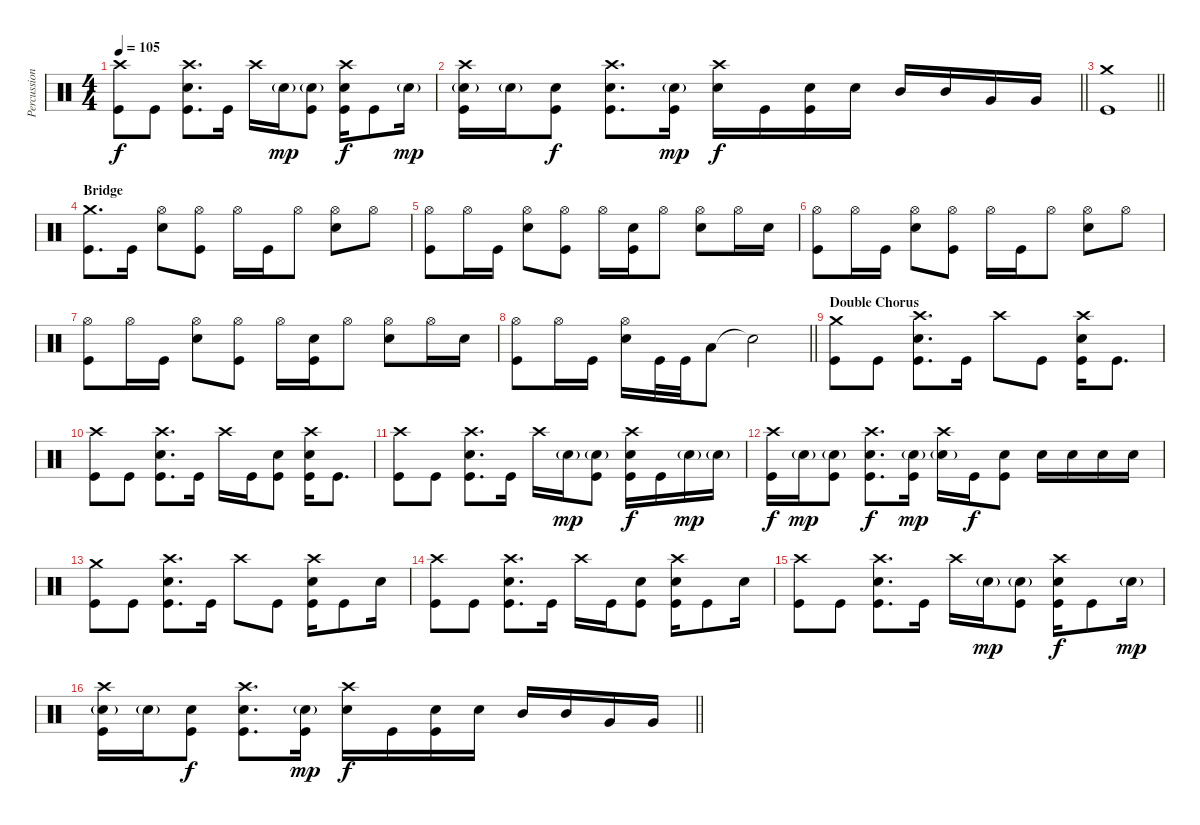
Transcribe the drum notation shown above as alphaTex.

\track ("Percussion" "Percussion") {instrument percussion}
\staff {score}
\articulation defaults
\ts (4 4)
\tempo 105
\clef neutral
\ks c
("Crash high (hit)" "Kick (hit)").8{dy f} "Kick (hit)".8 ("Crash high (hit)" "Electric Snare (hit)" "Kick (hit)").8{d} "Kick (hit)".16 "Crash high (hit)".16 "Electric Snare (hit)"{g}.16{dy mp} ("Electric Snare (hit)"{g} "Kick (hit)").8 ("Crash high (hit)" "Electric Snare (hit)" "Kick (hit)").16{dy f} "Kick (hit)".8 "Electric Snare (hit)"{g}.16{dy mp} |
\barLineRight lightlight
("Crash high (hit)" "Electric Snare (hit)"{g} "Kick (hit)").16 "Electric Snare (hit)"{g}.16 ("Electric Snare (hit)" "Kick (hit)").8{dy f} ("Crash high (hit)" "Electric Snare (hit)" "Kick (hit)").8{d} ("Electric Snare (hit)"{g} "Kick (hit)").16{dy mp} ("Crash high (hit)" "Electric Snare (hit)").16{dy f} "Kick (hit)".16 ("Electric Snare (hit)" "Kick (hit)").16 "Electric Snare (hit)".16 "Mid Tom (hit)".16 "Mid Tom (hit)".16 "Very Low Tom (hit)".16 "Very Low Tom (hit)".16 |
\section ("" "")
\barLineRight lightlight
("Crash medium (hit)" "Kick (hit)").1 |
\section ("" "Bridge")
("Crash medium (hit)" "Kick (hit)").8{d} "Kick (hit)".16 ("Hi-Hat (open)" "Electric Snare (hit)").8 ("Hi-Hat (open)" "Kick (hit)").8 "Hi-Hat (open)".16 "Kick (hit)".16 "Hi-Hat (open)".8 ("Hi-Hat (open)" "Electric Snare (hit)").8 "Hi-Hat (open)".8 |
("Hi-Hat (open)" "Kick (hit)").8 "Hi-Hat (open)".16 "Kick (hit)".16 ("Hi-Hat (open)" "Electric Snare (hit)").8 ("Hi-Hat (open)" "Kick (hit)").8 "Hi-Hat (open)".16 ("Electric Snare (hit)" "Kick (hit)").16 "Hi-Hat (open)".8 ("Hi-Hat (open)" "Electric Snare (hit)").8 "Hi-Hat (open)".16 "Electric Snare (hit)".16 |
("Hi-Hat (open)" "Kick (hit)").8 "Hi-Hat (open)".16 "Kick (hit)".16 ("Hi-Hat (open)" "Electric Snare (hit)").8 ("Hi-Hat (open)" "Kick (hit)").8 "Hi-Hat (open)".16 "Kick (hit)".16 "Hi-Hat (open)".8 ("Hi-Hat (open)" "Electric Snare (hit)").8 "Hi-Hat (open)".8 |
("Hi-Hat (open)" "Kick (hit)").8 "Hi-Hat (open)".16 "Kick (hit)".16 ("Hi-Hat (open)" "Electric Snare (hit)").8 ("Hi-Hat (open)" "Kick (hit)").8 "Hi-Hat (open)".16 ("Electric Snare (hit)" "Kick (hit)").16 "Hi-Hat (open)".8 ("Hi-Hat (open)" "Electric Snare (hit)").8 "Hi-Hat (open)".16 "Electric Snare (hit)".16 |
\barLineRight lightlight
("Hi-Hat (open)" "Kick (hit)").8 "Hi-Hat (open)".16 "Kick (hit)".16 ("Hi-Hat (open)" "Electric Snare (hit)").16 "Kick (hit)".32 "Kick (hit)".32 "Low Floor Tom (hit)".8 "Snare (hit)"{t}.2 |
\section ("" "Double Chorus")
("Crash medium (hit)" "Kick (hit)").8 "Kick (hit)".8 ("Crash high (hit)" "Electric Snare (hit)" "Kick (hit)").8{d} "Kick (hit)".16 "Crash high (hit)".8 "Kick (hit)".8 ("Crash high (hit)" "Electric Snare (hit)" "Kick (hit)").16 "Kick (hit)".8{d} |
("Crash high (hit)" "Kick (hit)").8 "Kick (hit)".8 ("Crash high (hit)" "Electric Snare (hit)" "Kick (hit)").8{d} "Kick (hit)".16 "Crash high (hit)".16 "Kick (hit)".16 ("Electric Snare (hit)" "Kick (hit)").8 ("Crash high (hit)" "Electric Snare (hit)" "Kick (hit)").16 "Kick (hit)".8{d} |
("Crash high (hit)" "Kick (hit)").8 "Kick (hit)".8 ("Crash high (hit)" "Electric Snare (hit)" "Kick (hit)").8{d} "Kick (hit)".16 "Crash high (hit)".16 "Electric Snare (hit)"{g}.16{dy mp} ("Electric Snare (hit)"{g} "Kick (hit)").8 ("Crash high (hit)" "Electric Snare (hit)" "Kick (hit)").16{dy f} "Kick (hit)".16 "Electric Snare (hit)"{g}.16{dy mp} "Electric Snare (hit)"{g}.16 |
("Crash high (hit)" "Kick (hit)").16{dy f} "Electric Snare (hit)"{g}.16{dy mp} ("Electric Snare (hit)"{g} "Kick (hit)").8 ("Crash high (hit)" "Electric Snare (hit)" "Kick (hit)").8{d dy f} ("Electric Snare (hit)"{g} "Kick (hit)").16{dy mp} ("Crash high (hit)" "Electric Snare (hit)"{g}).16 "Kick (hit)".16{dy f} ("Electric Snare (hit)" "Kick (hit)").8 "Electric Snare (hit)".16 "Electric Snare (hit)".16 "Electric Snare (hit)".16 "Electric Snare (hit)".16 |
("Crash medium (hit)" "Kick (hit)").8 "Kick (hit)".8 ("Crash high (hit)" "Electric Snare (hit)" "Kick (hit)").8{d} "Kick (hit)".16 "Crash high (hit)".8 "Kick (hit)".8 ("Crash high (hit)" "Electric Snare (hit)" "Kick (hit)").16 "Kick (hit)".8 "Electric Snare (hit)".16 |
("Crash high (hit)" "Kick (hit)").8 "Kick (hit)".8 ("Crash high (hit)" "Electric Snare (hit)" "Kick (hit)").8{d} "Kick (hit)".16 "Crash high (hit)".16 "Kick (hit)".16 ("Electric Snare (hit)" "Kick (hit)").8 ("Crash high (hit)" "Electric Snare (hit)" "Kick (hit)").16 "Kick (hit)".8 "Electric Snare (hit)".16 |
("Crash high (hit)" "Kick (hit)").8 "Kick (hit)".8 ("Crash high (hit)" "Electric Snare (hit)" "Kick (hit)").8{d} "Kick (hit)".16 "Crash high (hit)".16 "Electric Snare (hit)"{g}.16{dy mp} ("Electric Snare (hit)"{g} "Kick (hit)").8 ("Crash high (hit)" "Electric Snare (hit)" "Kick (hit)").16{dy f} "Kick (hit)".8 "Electric Snare (hit)"{g}.16{dy mp} |
\barLineRight lightlight
("Crash high (hit)" "Electric Snare (hit)"{g} "Kick (hit)").16 "Electric Snare (hit)"{g}.16 ("Electric Snare (hit)" "Kick (hit)").8{dy f} ("Crash high (hit)" "Electric Snare (hit)" "Kick (hit)").8{d} ("Electric Snare (hit)"{g} "Kick (hit)").16{dy mp} ("Crash high (hit)" "Electric Snare (hit)").16{dy f} "Kick (hit)".16 ("Electric Snare (hit)" "Kick (hit)").16 "Electric Snare (hit)".16 "Mid Tom (hit)".16 "Mid Tom (hit)".16 "Very Low Tom (hit)".16 "Very Low Tom (hit)".16
